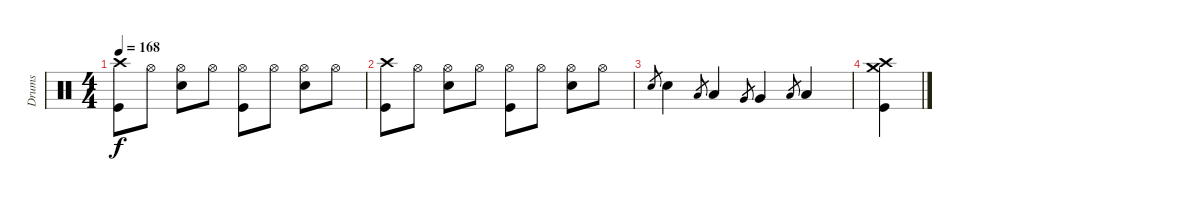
\track ("Drums" "Drums") {instrument percussion}
\staff {score}
\articulation defaults
\ts (4 4)
\tempo 168
\clef neutral
\ks c
("Crash high (hit)" "Kick (hit)").8{dy f} "Hi-Hat (open)".8 ("Hi-Hat (open)" "Snare (hit) 2").8 "Hi-Hat (open)".8 ("Hi-Hat (open)" "Kick (hit)").8 "Hi-Hat (open)".8 ("Hi-Hat (open)" "Snare (hit) 2").8 "Hi-Hat (open)".8 |
("Crash high (hit)" "Kick (hit)").8 "Hi-Hat (open)".8 ("Hi-Hat (open)" "Snare (hit) 2").8 "Hi-Hat (open)".8 ("Hi-Hat (open)" "Kick (hit)").8 "Hi-Hat (open)".8 ("Hi-Hat (open)" "Snare (hit) 2").8 "Hi-Hat (open)".8 |
"Snare (hit) 2".8{gr} "Snare (hit) 2".4 "Low Tom (hit)".8{gr} "Low Tom (hit)".4 "Very Low Tom (hit)".8{gr} "Very Low Tom (hit)".4 "Low Floor Tom (hit)".8{gr} "Low Floor Tom (hit)".4 |
("Crash medium (hit)" "Crash high (hit)" "Kick (hit)").4
